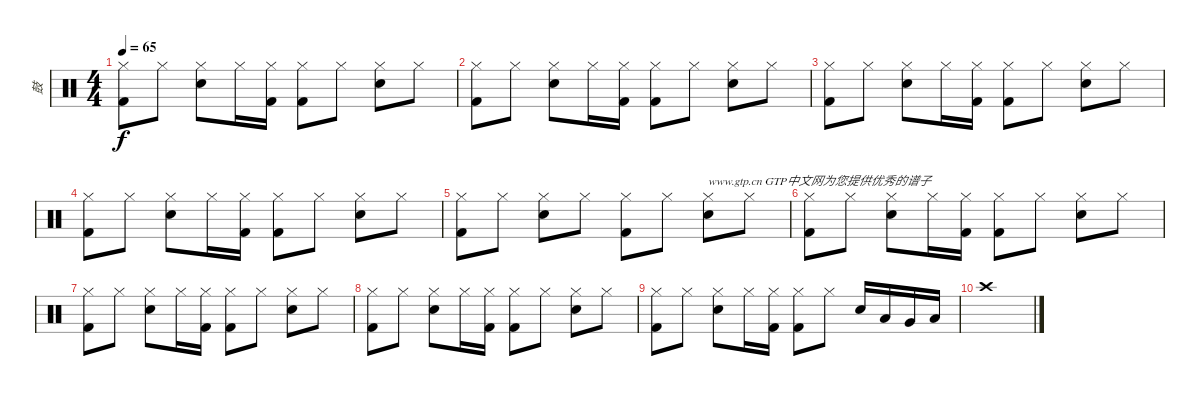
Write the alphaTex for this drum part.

\track ("鼓" "鼓") {instrument percussion}
\staff {score}
\articulation defaults
\ts (4 4)
\tempo 65
\clef neutral
\ks c
("Kick (hit) 2" "Hi-Hat (closed)").8{dy f} "Hi-Hat (closed)".8 ("Snare (hit) 2" "Hi-Hat (closed)").8 "Hi-Hat (closed)".16 ("Kick (hit) 2" "Hi-Hat (closed)").16 ("Kick (hit) 2" "Hi-Hat (closed)").8 "Hi-Hat (closed)".8 ("Snare (hit) 2" "Hi-Hat (closed)").8 "Hi-Hat (closed)".8 |
("Kick (hit) 2" "Hi-Hat (closed)").8 "Hi-Hat (closed)".8 ("Snare (hit) 2" "Hi-Hat (closed)").8 "Hi-Hat (closed)".16 ("Kick (hit) 2" "Hi-Hat (closed)").16 ("Kick (hit) 2" "Hi-Hat (closed)").8 "Hi-Hat (closed)".8 ("Snare (hit) 2" "Hi-Hat (closed)").8 "Hi-Hat (closed)".8 |
("Kick (hit) 2" "Hi-Hat (closed)").8 "Hi-Hat (closed)".8 ("Snare (hit) 2" "Hi-Hat (closed)").8 "Hi-Hat (closed)".16 ("Kick (hit) 2" "Hi-Hat (closed)").16 ("Kick (hit) 2" "Hi-Hat (closed)").8 "Hi-Hat (closed)".8 ("Snare (hit) 2" "Hi-Hat (closed)").8 "Hi-Hat (closed)".8 |
("Kick (hit) 2" "Hi-Hat (closed)").8 "Hi-Hat (closed)".8 ("Snare (hit) 2" "Hi-Hat (closed)").8 "Hi-Hat (closed)".16 ("Kick (hit) 2" "Hi-Hat (closed)").16 ("Kick (hit) 2" "Hi-Hat (closed)").8 "Hi-Hat (closed)".8 ("Snare (hit) 2" "Hi-Hat (closed)").8 "Hi-Hat (closed)".8 |
("Kick (hit) 2" "Hi-Hat (closed)").8 "Hi-Hat (closed)".8 ("Snare (hit) 2" "Hi-Hat (closed)").8 "Hi-Hat (closed)".8 ("Kick (hit) 2" "Hi-Hat (closed)").8 "Hi-Hat (closed)".8 ("Snare (hit) 2" "Hi-Hat (closed)").8{txt "www.gtp.cn GTP中文网为您提供优秀的谱子"} "Hi-Hat (closed)".8 |
("Kick (hit) 2" "Hi-Hat (closed)").8 "Hi-Hat (closed)".8 ("Snare (hit) 2" "Hi-Hat (closed)").8 "Hi-Hat (closed)".16 ("Kick (hit) 2" "Hi-Hat (closed)").16 ("Kick (hit) 2" "Hi-Hat (closed)").8 "Hi-Hat (closed)".8 ("Snare (hit) 2" "Hi-Hat (closed)").8 "Hi-Hat (closed)".8 |
("Kick (hit) 2" "Hi-Hat (closed)").8 "Hi-Hat (closed)".8 ("Snare (hit) 2" "Hi-Hat (closed)").8 "Hi-Hat (closed)".16 ("Kick (hit) 2" "Hi-Hat (closed)").16 ("Kick (hit) 2" "Hi-Hat (closed)").8 "Hi-Hat (closed)".8 ("Snare (hit) 2" "Hi-Hat (closed)").8 "Hi-Hat (closed)".8 |
("Kick (hit) 2" "Hi-Hat (closed)").8 "Hi-Hat (closed)".8 ("Snare (hit) 2" "Hi-Hat (closed)").8 "Hi-Hat (closed)".16 ("Kick (hit) 2" "Hi-Hat (closed)").16 ("Kick (hit) 2" "Hi-Hat (closed)").8 "Hi-Hat (closed)".8 ("Snare (hit) 2" "Hi-Hat (closed)").8 "Hi-Hat (closed)".8 |
("Kick (hit) 2" "Hi-Hat (closed)").8 "Hi-Hat (closed)".8 ("Snare (hit) 2" "Hi-Hat (closed)").8 "Hi-Hat (closed)".16 ("Kick (hit) 2" "Hi-Hat (closed)").16 ("Kick (hit) 2" "Hi-Hat (closed)").8 "Hi-Hat (closed)".8 "Snare (hit) 2".16 "Low Floor Tom (hit)".16 "Very Low Tom (hit)".16 "Low Tom (hit)".16 |
"Crash high (hit)".1
